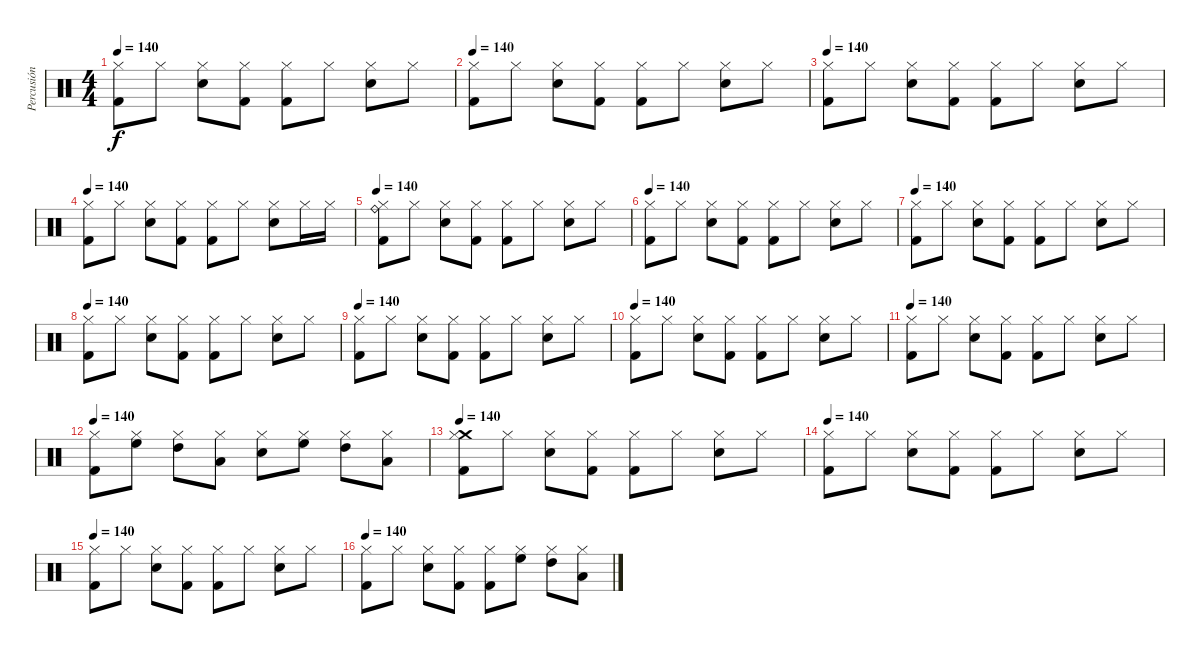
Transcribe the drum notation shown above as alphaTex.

\track ("Percusión" "Percusión") {instrument percussion}
\staff {score}
\articulation defaults
\ts (4 4)
\tempo 140
\clef neutral
\ks c
("Kick (hit) 2" "Hi-Hat (closed)").8{dy f} "Hi-Hat (closed)".8 ("Snare (hit) 2" "Hi-Hat (closed)").8 ("Kick (hit) 2" "Hi-Hat (closed)").8 ("Kick (hit) 2" "Hi-Hat (closed)").8 "Hi-Hat (closed)".8 ("Snare (hit) 2" "Hi-Hat (closed)").8 "Hi-Hat (closed)".8 |
\tempo 140
("Kick (hit) 2" "Hi-Hat (closed)").8 "Hi-Hat (closed)".8 ("Snare (hit) 2" "Hi-Hat (closed)").8 ("Kick (hit) 2" "Hi-Hat (closed)").8 ("Kick (hit) 2" "Hi-Hat (closed)").8 "Hi-Hat (closed)".8 ("Snare (hit) 2" "Hi-Hat (closed)").8 "Hi-Hat (closed)".8 |
\tempo 140
("Kick (hit) 2" "Hi-Hat (closed)").8 "Hi-Hat (closed)".8 ("Snare (hit) 2" "Hi-Hat (closed)").8 ("Kick (hit) 2" "Hi-Hat (closed)").8 ("Kick (hit) 2" "Hi-Hat (closed)").8 "Hi-Hat (closed)".8 ("Snare (hit) 2" "Hi-Hat (closed)").8 "Hi-Hat (closed)".8 |
\tempo 140
("Kick (hit) 2" "Hi-Hat (closed)").8 "Hi-Hat (closed)".8 ("Snare (hit) 2" "Hi-Hat (closed)").8 ("Kick (hit) 2" "Hi-Hat (closed)").8 ("Kick (hit) 2" "Hi-Hat (closed)").8 "Hi-Hat (closed)".8 ("Snare (hit) 2" "Hi-Hat (closed)").8 "Hi-Hat (closed)".16 "Hi-Hat (closed)".16 |
\tempo 140
("Kick (hit) 2" "Ride (bell)" "Hi-Hat (closed)").8 "Hi-Hat (closed)".8 ("Snare (hit) 2" "Hi-Hat (closed)").8 ("Kick (hit) 2" "Hi-Hat (closed)").8 ("Kick (hit) 2" "Hi-Hat (closed)").8 "Hi-Hat (closed)".8 ("Snare (hit) 2" "Hi-Hat (closed)").8 "Hi-Hat (closed)".8 |
\tempo 140
("Kick (hit) 2" "Hi-Hat (closed)").8 "Hi-Hat (closed)".8 ("Snare (hit) 2" "Hi-Hat (closed)").8 ("Kick (hit) 2" "Hi-Hat (closed)").8 ("Kick (hit) 2" "Hi-Hat (closed)").8 "Hi-Hat (closed)".8 ("Snare (hit) 2" "Hi-Hat (closed)").8 "Hi-Hat (closed)".8 |
\tempo 140
("Kick (hit) 2" "Hi-Hat (closed)").8 "Hi-Hat (closed)".8 ("Snare (hit) 2" "Hi-Hat (closed)").8 ("Kick (hit) 2" "Hi-Hat (closed)").8 ("Kick (hit) 2" "Hi-Hat (closed)").8 "Hi-Hat (closed)".8 ("Snare (hit) 2" "Hi-Hat (closed)").8 "Hi-Hat (closed)".8 |
\tempo 140
("Kick (hit) 2" "Hi-Hat (closed)").8 "Hi-Hat (closed)".8 ("Snare (hit) 2" "Hi-Hat (closed)").8 ("Kick (hit) 2" "Hi-Hat (closed)").8 ("Kick (hit) 2" "Hi-Hat (closed)").8 "Hi-Hat (closed)".8 ("Snare (hit) 2" "Hi-Hat (closed)").8 "Hi-Hat (closed)".8 |
\tempo 140
("Kick (hit) 2" "Hi-Hat (closed)").8 "Hi-Hat (closed)".8 ("Snare (hit) 2" "Hi-Hat (closed)").8 ("Kick (hit) 2" "Hi-Hat (closed)").8 ("Kick (hit) 2" "Hi-Hat (closed)").8 "Hi-Hat (closed)".8 ("Snare (hit) 2" "Hi-Hat (closed)").8 "Hi-Hat (closed)".8 |
\tempo 140
("Kick (hit) 2" "Hi-Hat (closed)").8 "Hi-Hat (closed)".8 ("Snare (hit) 2" "Hi-Hat (closed)").8 ("Kick (hit) 2" "Hi-Hat (closed)").8 ("Kick (hit) 2" "Hi-Hat (closed)").8 "Hi-Hat (closed)".8 ("Snare (hit) 2" "Hi-Hat (closed)").8 "Hi-Hat (closed)".8 |
\tempo 140
("Kick (hit) 2" "Hi-Hat (closed)").8 "Hi-Hat (closed)".8 ("Snare (hit) 2" "Hi-Hat (closed)").8 ("Kick (hit) 2" "Hi-Hat (closed)").8 ("Kick (hit) 2" "Hi-Hat (closed)").8 "Hi-Hat (closed)".8 ("Snare (hit) 2" "Hi-Hat (closed)").8 "Hi-Hat (closed)".8 |
\tempo 140
("Kick (hit) 2" "Hi-Hat (closed)").8 ("High Floor Tom (hit)" "Hi-Hat (closed)").8 ("High Tom (hit)" "Hi-Hat (closed)").8 ("Low Tom (hit)" "Hi-Hat (closed)").8 ("Snare (hit) 2" "Hi-Hat (closed)").8 ("High Floor Tom (hit)" "Hi-Hat (closed)").8 ("High Tom (hit)" "Hi-Hat (closed)").8 ("Low Tom (hit)" "Hi-Hat (closed)").8 |
\tempo 140
("Kick (hit) 2" "Crash medium (hit)" "Hi-Hat (closed)").8 "Hi-Hat (closed)".8 ("Snare (hit) 2" "Hi-Hat (closed)").8 ("Kick (hit) 2" "Hi-Hat (closed)").8 ("Kick (hit) 2" "Hi-Hat (closed)").8 "Hi-Hat (closed)".8 ("Snare (hit) 2" "Hi-Hat (closed)").8 "Hi-Hat (closed)".8 |
\tempo 140
("Kick (hit) 2" "Hi-Hat (closed)").8 "Hi-Hat (closed)".8 ("Snare (hit) 2" "Hi-Hat (closed)").8 ("Kick (hit) 2" "Hi-Hat (closed)").8 ("Kick (hit) 2" "Hi-Hat (closed)").8 "Hi-Hat (closed)".8 ("Snare (hit) 2" "Hi-Hat (closed)").8 "Hi-Hat (closed)".8 |
\tempo 140
("Kick (hit) 2" "Hi-Hat (closed)").8 "Hi-Hat (closed)".8 ("Snare (hit) 2" "Hi-Hat (closed)").8 ("Kick (hit) 2" "Hi-Hat (closed)").8 ("Kick (hit) 2" "Hi-Hat (closed)").8 "Hi-Hat (closed)".8 ("Snare (hit) 2" "Hi-Hat (closed)").8 "Hi-Hat (closed)".8 |
\tempo 140
("Kick (hit) 2" "Hi-Hat (closed)").8 "Hi-Hat (closed)".8 ("Snare (hit) 2" "Hi-Hat (closed)").8 ("Kick (hit) 2" "Hi-Hat (closed)").8 ("Kick (hit) 2" "Hi-Hat (closed)").8 ("High Floor Tom (hit)" "Hi-Hat (closed)").8 ("High Tom (hit)" "Hi-Hat (closed)").8 ("Low Tom (hit)" "Hi-Hat (closed)").8
